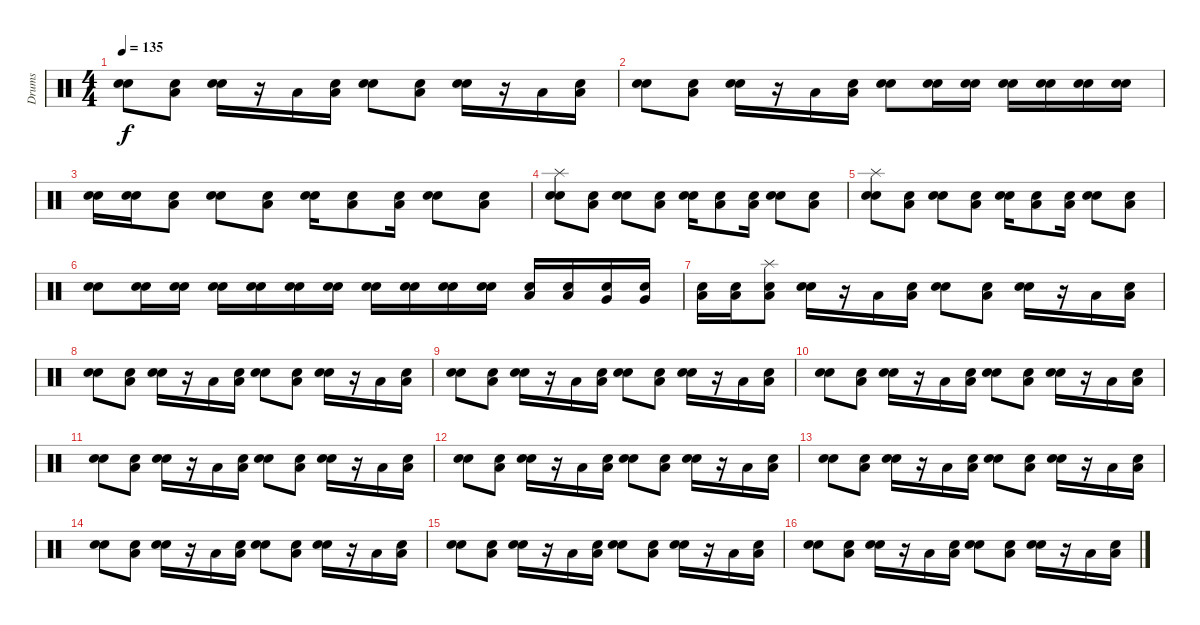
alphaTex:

\track ("Drums" "Drums") {instrument percussion}
\staff {score}
\articulation defaults
\ts (4 4)
\tempo 135
\clef neutral
\ks c
("Snare (hit)" "Electric Snare (hit)").8{dy f} ("Snare (hit)" "Low Floor Tom (hit)").8 ("Snare (hit)" "Electric Snare (hit)").16 r.16 "Low Floor Tom (hit)".16 ("Snare (hit)" "Low Floor Tom (hit)").16 ("Snare (hit)" "Electric Snare (hit)").8 ("Snare (hit)" "Low Floor Tom (hit)").8 ("Snare (hit)" "Electric Snare (hit)").16 r.16 "Low Floor Tom (hit)".16 ("Snare (hit)" "Low Floor Tom (hit)").16 |
("Snare (hit)" "Electric Snare (hit)").8 ("Snare (hit)" "Low Floor Tom (hit)").8 ("Snare (hit)" "Electric Snare (hit)").16 r.16 "Low Floor Tom (hit)".16 ("Snare (hit)" "Low Floor Tom (hit)").16 ("Snare (hit)" "Electric Snare (hit)").8 ("Snare (hit)" "Electric Snare (hit)").16 ("Snare (hit)" "Electric Snare (hit)").16 ("Snare (hit)" "Electric Snare (hit)").16 ("Snare (hit)" "Electric Snare (hit)").16 ("Snare (hit)" "Electric Snare (hit)").16 ("Snare (hit)" "Electric Snare (hit)").16 |
("Snare (hit)" "Electric Snare (hit)").16 ("Snare (hit)" "Electric Snare (hit)").16 ("Snare (hit)" "Low Floor Tom (hit)").8 ("Snare (hit)" "Electric Snare (hit)").8 ("Snare (hit)" "Low Floor Tom (hit)").8 ("Snare (hit)" "Electric Snare (hit)").16 ("Snare (hit)" "Low Floor Tom (hit)").8 ("Snare (hit)" "Low Floor Tom (hit)").16 ("Snare (hit)" "Electric Snare (hit)").8 ("Snare (hit)" "Low Floor Tom (hit)").8 |
("Snare (hit)" "Electric Snare (hit)" "Splash (hit)").8 ("Snare (hit)" "Low Floor Tom (hit)").8 ("Snare (hit)" "Electric Snare (hit)").8 ("Snare (hit)" "Low Floor Tom (hit)").8 ("Snare (hit)" "Electric Snare (hit)").16 ("Snare (hit)" "Low Floor Tom (hit)").8 ("Snare (hit)" "Low Floor Tom (hit)").16 ("Snare (hit)" "Electric Snare (hit)").8 ("Snare (hit)" "Low Floor Tom (hit)").8 |
("Snare (hit)" "Electric Snare (hit)" "Splash (hit)").8 ("Snare (hit)" "Low Floor Tom (hit)").8 ("Snare (hit)" "Electric Snare (hit)").8 ("Snare (hit)" "Low Floor Tom (hit)").8 ("Snare (hit)" "Electric Snare (hit)").16 ("Snare (hit)" "Low Floor Tom (hit)").8 ("Snare (hit)" "Low Floor Tom (hit)").16 ("Snare (hit)" "Electric Snare (hit)").8 ("Snare (hit)" "Low Floor Tom (hit)").8 |
("Snare (hit)" "Electric Snare (hit)").8 ("Snare (hit)" "Electric Snare (hit)").16 ("Snare (hit)" "Electric Snare (hit)").16 ("Snare (hit)" "Electric Snare (hit)").16 ("Snare (hit)" "Electric Snare (hit)").16 ("Snare (hit)" "Electric Snare (hit)").16 ("Snare (hit)" "Electric Snare (hit)").16 ("Snare (hit)" "Electric Snare (hit)").16 ("Snare (hit)" "Electric Snare (hit)").16 ("Snare (hit)" "Electric Snare (hit)").16 ("Snare (hit)" "Electric Snare (hit)").16 ("Snare (hit)" "Low Tom (hit)").16 ("Snare (hit)" "Low Tom (hit)").16 ("Snare (hit)" "Very Low Tom (hit)").16 ("Snare (hit)" "Very Low Tom (hit)").16 |
("Snare (hit)" "Low Floor Tom (hit)").16 ("Snare (hit)" "Low Floor Tom (hit)").16 ("Snare (hit)" "Low Floor Tom (hit)" "Splash (hit)").8 ("Snare (hit)" "Electric Snare (hit)").16 r.16 "Low Floor Tom (hit)".16 ("Snare (hit)" "Low Floor Tom (hit)").16 ("Snare (hit)" "Electric Snare (hit)").8 ("Snare (hit)" "Low Floor Tom (hit)").8 ("Snare (hit)" "Electric Snare (hit)").16 r.16 "Low Floor Tom (hit)".16 ("Snare (hit)" "Low Floor Tom (hit)").16 |
("Snare (hit)" "Electric Snare (hit)").8 ("Snare (hit)" "Low Floor Tom (hit)").8 ("Snare (hit)" "Electric Snare (hit)").16 r.16 "Low Floor Tom (hit)".16 ("Snare (hit)" "Low Floor Tom (hit)").16 ("Snare (hit)" "Electric Snare (hit)").8 ("Snare (hit)" "Low Floor Tom (hit)").8 ("Snare (hit)" "Electric Snare (hit)").16 r.16 "Low Floor Tom (hit)".16 ("Snare (hit)" "Low Floor Tom (hit)").16 |
("Snare (hit)" "Electric Snare (hit)").8 ("Snare (hit)" "Low Floor Tom (hit)").8 ("Snare (hit)" "Electric Snare (hit)").16 r.16 "Low Floor Tom (hit)".16 ("Snare (hit)" "Low Floor Tom (hit)").16 ("Snare (hit)" "Electric Snare (hit)").8 ("Snare (hit)" "Low Floor Tom (hit)").8 ("Snare (hit)" "Electric Snare (hit)").16 r.16 "Low Floor Tom (hit)".16 ("Snare (hit)" "Low Floor Tom (hit)").16 |
("Snare (hit)" "Electric Snare (hit)").8 ("Snare (hit)" "Low Floor Tom (hit)").8 ("Snare (hit)" "Electric Snare (hit)").16 r.16 "Low Floor Tom (hit)".16 ("Snare (hit)" "Low Floor Tom (hit)").16 ("Snare (hit)" "Electric Snare (hit)").8 ("Snare (hit)" "Low Floor Tom (hit)").8 ("Snare (hit)" "Electric Snare (hit)").16 r.16 "Low Floor Tom (hit)".16 ("Snare (hit)" "Low Floor Tom (hit)").16 |
("Snare (hit)" "Electric Snare (hit)").8 ("Snare (hit)" "Low Floor Tom (hit)").8 ("Snare (hit)" "Electric Snare (hit)").16 r.16 "Low Floor Tom (hit)".16 ("Snare (hit)" "Low Floor Tom (hit)").16 ("Snare (hit)" "Electric Snare (hit)").8 ("Snare (hit)" "Low Floor Tom (hit)").8 ("Snare (hit)" "Electric Snare (hit)").16 r.16 "Low Floor Tom (hit)".16 ("Snare (hit)" "Low Floor Tom (hit)").16 |
("Snare (hit)" "Electric Snare (hit)").8 ("Snare (hit)" "Low Floor Tom (hit)").8 ("Snare (hit)" "Electric Snare (hit)").16 r.16 "Low Floor Tom (hit)".16 ("Snare (hit)" "Low Floor Tom (hit)").16 ("Snare (hit)" "Electric Snare (hit)").8 ("Snare (hit)" "Low Floor Tom (hit)").8 ("Snare (hit)" "Electric Snare (hit)").16 r.16 "Low Floor Tom (hit)".16 ("Snare (hit)" "Low Floor Tom (hit)").16 |
("Snare (hit)" "Electric Snare (hit)").8 ("Snare (hit)" "Low Floor Tom (hit)").8 ("Snare (hit)" "Electric Snare (hit)").16 r.16 "Low Floor Tom (hit)".16 ("Snare (hit)" "Low Floor Tom (hit)").16 ("Snare (hit)" "Electric Snare (hit)").8 ("Snare (hit)" "Low Floor Tom (hit)").8 ("Snare (hit)" "Electric Snare (hit)").16 r.16 "Low Floor Tom (hit)".16 ("Snare (hit)" "Low Floor Tom (hit)").16 |
("Snare (hit)" "Electric Snare (hit)").8 ("Snare (hit)" "Low Floor Tom (hit)").8 ("Snare (hit)" "Electric Snare (hit)").16 r.16 "Low Floor Tom (hit)".16 ("Snare (hit)" "Low Floor Tom (hit)").16 ("Snare (hit)" "Electric Snare (hit)").8 ("Snare (hit)" "Low Floor Tom (hit)").8 ("Snare (hit)" "Electric Snare (hit)").16 r.16 "Low Floor Tom (hit)".16 ("Snare (hit)" "Low Floor Tom (hit)").16 |
("Snare (hit)" "Electric Snare (hit)").8 ("Snare (hit)" "Low Floor Tom (hit)").8 ("Snare (hit)" "Electric Snare (hit)").16 r.16 "Low Floor Tom (hit)".16 ("Snare (hit)" "Low Floor Tom (hit)").16 ("Snare (hit)" "Electric Snare (hit)").8 ("Snare (hit)" "Low Floor Tom (hit)").8 ("Snare (hit)" "Electric Snare (hit)").16 r.16 "Low Floor Tom (hit)".16 ("Snare (hit)" "Low Floor Tom (hit)").16 |
("Snare (hit)" "Electric Snare (hit)").8 ("Snare (hit)" "Low Floor Tom (hit)").8 ("Snare (hit)" "Electric Snare (hit)").16 r.16 "Low Floor Tom (hit)".16 ("Snare (hit)" "Low Floor Tom (hit)").16 ("Snare (hit)" "Electric Snare (hit)").8 ("Snare (hit)" "Low Floor Tom (hit)").8 ("Snare (hit)" "Electric Snare (hit)").16 r.16 "Low Floor Tom (hit)".16 ("Snare (hit)" "Low Floor Tom (hit)").16
